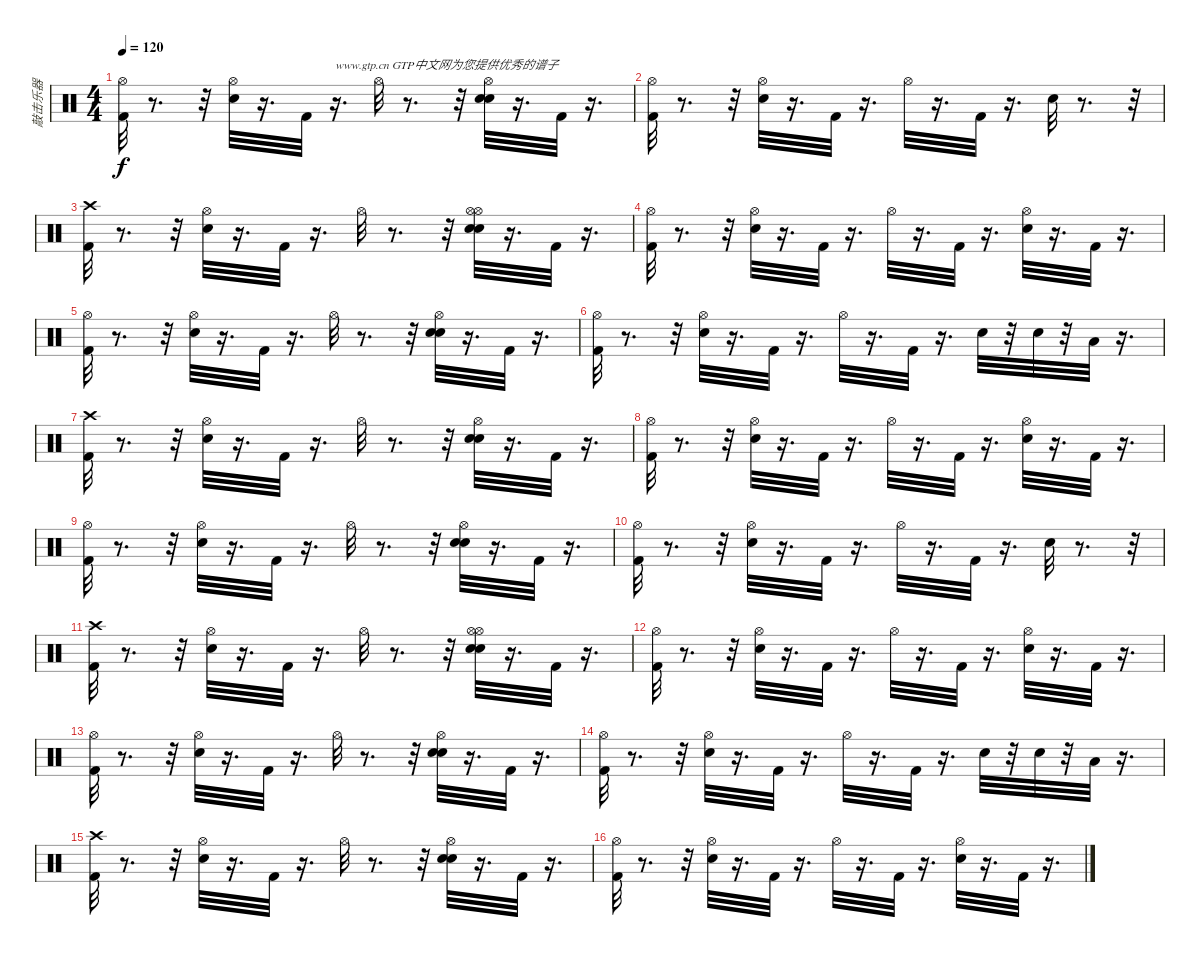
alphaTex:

\track ("敲击乐器" "敲击乐器") {instrument percussion}
\staff {score}
\articulation defaults
\ts (4 4)
\tempo 120
\clef neutral
\ks c
("Hi-Hat (open)" "Kick (hit) 2").32{dy f} r.8{d} r.32 ("Snare (hit) 2" "Hi-Hat (open)").32 r.16{d} "Kick (hit) 2".32 r.16{d txt "www.gtp.cn GTP中文网为您提供优秀的谱子"} "Hi-Hat (open)".32 r.8{d} r.32 ("Snare (hit) 2" "Snare (hit) 2" "Hi-Hat (open)").32 r.16{d} "Kick (hit) 2".32 r.16{d} |
("Hi-Hat (open)" "Kick (hit) 2").32 r.8{d} r.32 ("Snare (hit) 2" "Hi-Hat (open)").32 r.16{d} "Kick (hit) 2".32 r.16{d} "Hi-Hat (open)".32 r.16{d} "Kick (hit) 2".32 r.16{d} "Snare (hit) 2".32 r.8{d} r.32 |
("Kick (hit) 2" "Crash high (hit)").32 r.8{d} r.32 ("Snare (hit) 2" "Hi-Hat (open)").32 r.16{d} "Kick (hit) 2".32 r.16{d} "Hi-Hat (open)".32 r.8{d} r.32 ("Snare (hit) 2" "Hi-Hat (open)" "Snare (hit) 2" "Hi-Hat (open)").32 r.16{d} "Kick (hit) 2".32 r.16{d} |
("Kick (hit) 2" "Hi-Hat (open)").32 r.8{d} r.32 ("Snare (hit) 2" "Hi-Hat (open)").32 r.16{d} "Kick (hit) 2".32 r.16{d} "Hi-Hat (open)".32 r.16{d} "Kick (hit) 2".32 r.16{d} ("Snare (hit) 2" "Hi-Hat (open)").32 r.16{d} "Kick (hit) 2".32 r.16{d} |
("Hi-Hat (open)" "Kick (hit) 2").32 r.8{d} r.32 ("Snare (hit) 2" "Hi-Hat (open)").32 r.16{d} "Kick (hit) 2".32 r.16{d} "Hi-Hat (open)".32 r.8{d} r.32 ("Snare (hit) 2" "Snare (hit) 2" "Hi-Hat (open)").32 r.16{d} "Kick (hit) 2".32 r.16{d} |
("Kick (hit) 2" "Hi-Hat (open)").32 r.8{d} r.32 ("Snare (hit) 2" "Hi-Hat (open)").32 r.16{d} "Kick (hit) 2".32 r.16{d} "Hi-Hat (open)".32 r.16{d} "Kick (hit) 2".32 r.16{d} "Snare (hit) 2".32 r.32 "Snare (hit) 2".32 r.32 "Low Floor Tom (hit)".32 r.16{d} |
("Kick (hit) 2" "Crash high (hit)").32 r.8{d} r.32 ("Snare (hit) 2" "Hi-Hat (open)").32 r.16{d} "Kick (hit) 2".32 r.16{d} "Hi-Hat (open)".32 r.8{d} r.32 ("Snare (hit) 2" "Snare (hit) 2" "Hi-Hat (open)").32 r.16{d} "Kick (hit) 2".32 r.16{d} |
("Kick (hit) 2" "Hi-Hat (open)").32 r.8{d} r.32 ("Snare (hit) 2" "Hi-Hat (open)").32 r.16{d} "Kick (hit) 2".32 r.16{d} "Hi-Hat (open)".32 r.16{d} "Kick (hit) 2".32 r.16{d} ("Hi-Hat (open)" "Snare (hit) 2").32 r.16{d} "Kick (hit) 2".32 r.16{d} |
("Hi-Hat (open)" "Kick (hit) 2").32 r.8{d} r.32 ("Snare (hit) 2" "Hi-Hat (open)").32 r.16{d} "Kick (hit) 2".32 r.16{d} "Hi-Hat (open)".32 r.8{d} r.32 ("Snare (hit) 2" "Hi-Hat (open)" "Snare (hit) 2").32 r.16{d} "Kick (hit) 2".32 r.16{d} |
("Hi-Hat (open)" "Kick (hit) 2").32 r.8{d} r.32 ("Snare (hit) 2" "Hi-Hat (open)").32 r.16{d} "Kick (hit) 2".32 r.16{d} "Hi-Hat (open)".32 r.16{d} "Kick (hit) 2".32 r.16{d} "Snare (hit) 2".32 r.8{d} r.32 |
("Kick (hit) 2" "Crash high (hit)").32 r.8{d} r.32 ("Snare (hit) 2" "Hi-Hat (open)").32 r.16{d} "Kick (hit) 2".32 r.16{d} "Hi-Hat (open)".32 r.8{d} r.32 ("Snare (hit) 2" "Hi-Hat (open)" "Snare (hit) 2" "Hi-Hat (open)").32 r.16{d} "Kick (hit) 2".32 r.16{d} |
("Kick (hit) 2" "Hi-Hat (open)").32 r.8{d} r.32 ("Snare (hit) 2" "Hi-Hat (open)").32 r.16{d} "Kick (hit) 2".32 r.16{d} "Hi-Hat (open)".32 r.16{d} "Kick (hit) 2".32 r.16{d} ("Snare (hit) 2" "Hi-Hat (open)").32 r.16{d} "Kick (hit) 2".32 r.16{d} |
("Hi-Hat (open)" "Kick (hit) 2").32 r.8{d} r.32 ("Snare (hit) 2" "Hi-Hat (open)").32 r.16{d} "Kick (hit) 2".32 r.16{d} "Hi-Hat (open)".32 r.8{d} r.32 ("Snare (hit) 2" "Hi-Hat (open)" "Snare (hit) 2").32 r.16{d} "Kick (hit) 2".32 r.16{d} |
("Kick (hit) 2" "Hi-Hat (open)").32 r.8{d} r.32 ("Snare (hit) 2" "Hi-Hat (open)").32 r.16{d} "Kick (hit) 2".32 r.16{d} "Hi-Hat (open)".32 r.16{d} "Kick (hit) 2".32 r.16{d} "Snare (hit) 2".32 r.32 "Snare (hit) 2".32 r.32 "Low Floor Tom (hit)".32 r.16{d} |
("Kick (hit) 2" "Crash high (hit)").32 r.8{d} r.32 ("Snare (hit) 2" "Hi-Hat (open)").32 r.16{d} "Kick (hit) 2".32 r.16{d} "Hi-Hat (open)".32 r.8{d} r.32 ("Snare (hit) 2" "Snare (hit) 2" "Hi-Hat (open)").32 r.16{d} "Kick (hit) 2".32 r.16{d} |
("Kick (hit) 2" "Hi-Hat (open)").32 r.8{d} r.32 ("Snare (hit) 2" "Hi-Hat (open)").32 r.16{d} "Kick (hit) 2".32 r.16{d} "Hi-Hat (open)".32 r.16{d} "Kick (hit) 2".32 r.16{d} ("Hi-Hat (open)" "Snare (hit) 2").32 r.16{d} "Kick (hit) 2".32 r.16{d}
